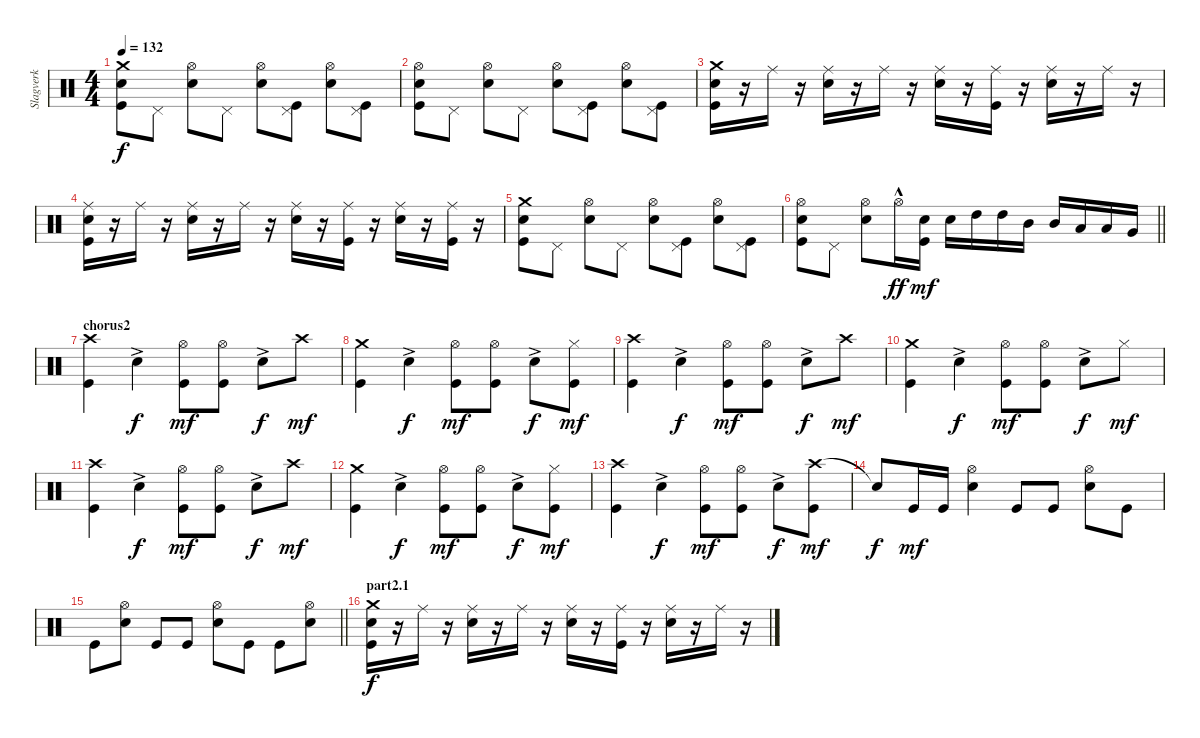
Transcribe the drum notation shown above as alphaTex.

\track ("Slagverk" "Slagverk") {instrument percussion}
\staff
\articulation defaults
\ts (4 4)
\tempo 132
\clef neutral
\ks c
("Crash medium (hit)" "Snare (hit) 2" "Kick (hit)").8{dy f} "Pedal Hi-Hat (hit)".8 ("Hi-Hat (open)" "Snare (hit) 2").8 "Pedal Hi-Hat (hit)".8 ("Hi-Hat (open)" "Snare (hit) 2").8 ("Pedal Hi-Hat (hit)" "Kick (hit)").8 ("Hi-Hat (open)" "Snare (hit) 2").8 ("Pedal Hi-Hat (hit)" "Kick (hit)").8 |
("Hi-Hat (open)" "Snare (hit) 2" "Kick (hit)").8 "Pedal Hi-Hat (hit)".8 ("Hi-Hat (open)" "Snare (hit) 2").8 "Pedal Hi-Hat (hit)".8 ("Hi-Hat (open)" "Snare (hit) 2").8 ("Pedal Hi-Hat (hit)" "Kick (hit)").8 ("Hi-Hat (open)" "Snare (hit) 2").8 ("Pedal Hi-Hat (hit)" "Kick (hit)").8 |
("Crash medium (hit)" "Snare (hit) 2" "Kick (hit)").16 r.16 "Ride (middle)".16 r.16 ("Ride (middle)" "Snare (hit) 2").16 r.16 "Ride (middle)".16 r.16 ("Ride (middle)" "Snare (hit) 2").16 r.16 ("Ride (middle)" "Kick (hit)").16 r.16 ("Ride (middle)" "Snare (hit) 2").16 r.16 "Ride (middle)".16 r.16 |
("Ride (middle)" "Snare (hit) 2" "Kick (hit)").16 r.16 "Ride (middle)".16 r.16 ("Ride (middle)" "Snare (hit) 2").16 r.16 "Ride (middle)".16 r.16 ("Ride (middle)" "Snare (hit) 2").16 r.16 ("Ride (middle)" "Kick (hit)").16 r.16 ("Ride (middle)" "Snare (hit) 2").16 r.16 ("Ride (middle)" "Kick (hit)").16 r.16 |
("Crash medium (hit)" "Snare (hit) 2" "Kick (hit)").8 "Pedal Hi-Hat (hit)".8 ("Hi-Hat (open)" "Snare (hit) 2").8 "Pedal Hi-Hat (hit)".8 ("Hi-Hat (open)" "Snare (hit) 2").8 ("Pedal Hi-Hat (hit)" "Kick (hit)").8 ("Hi-Hat (open)" "Snare (hit) 2").8 ("Pedal Hi-Hat (hit)" "Kick (hit)").8 |
\barLineRight lightlight
("Hi-Hat (open)" "Snare (hit) 2" "Kick (hit)").8 "Pedal Hi-Hat (hit)".8 ("Hi-Hat (open)" "Snare (hit) 2").8 "Hi-Hat (open)"{hac}.16{dy ff} ("Snare (hit) 2" "Kick (hit)").16{dy mf} "Snare (hit) 2".16 "High Tom (hit)".16 "High Tom (hit)".16 "Mid Tom (hit)".16 "Mid Tom (hit)".16 "Low Tom (hit)".16 "Low Tom (hit)".16 "Very Low Tom (hit)".16 |
\section ("" "chorus2")
("Crash high (hit)" "Kick (hit)").4 "Snare (hit) 2"{ac}.4{dy f} ("Hi-Hat (open)" "Kick (hit)").8{dy mf} ("Hi-Hat (open)" "Kick (hit)").8 "Snare (hit) 2"{ac}.8{dy f} "Crash high (hit)".8{dy mf} |
("Crash medium (hit)" "Kick (hit)").4 "Snare (hit) 2"{ac}.4{dy f} ("Hi-Hat (open)" "Kick (hit)").8{dy mf} ("Hi-Hat (open)" "Kick (hit)").8 "Snare (hit) 2"{ac}.8{dy f} ("Hi-Hat (closed)" "Kick (hit)").8{dy mf} |
("Crash high (hit)" "Kick (hit)").4 "Snare (hit) 2"{ac}.4{dy f} ("Hi-Hat (open)" "Kick (hit)").8{dy mf} ("Hi-Hat (open)" "Kick (hit)").8 "Snare (hit) 2"{ac}.8{dy f} "Crash high (hit)".8{dy mf} |
("Crash medium (hit)" "Kick (hit)").4 "Snare (hit) 2"{ac}.4{dy f} ("Hi-Hat (open)" "Kick (hit)").8{dy mf} ("Hi-Hat (open)" "Kick (hit)").8 "Snare (hit) 2"{ac}.8{dy f} "Hi-Hat (closed)".8{dy mf} |
("Crash high (hit)" "Kick (hit)").4 "Snare (hit) 2"{ac}.4{dy f} ("Hi-Hat (open)" "Kick (hit)").8{dy mf} ("Hi-Hat (open)" "Kick (hit)").8 "Snare (hit) 2"{ac}.8{dy f} "Crash high (hit)".8{dy mf} |
("Crash medium (hit)" "Kick (hit)").4 "Snare (hit) 2"{ac}.4{dy f} ("Hi-Hat (open)" "Kick (hit)").8{dy mf} ("Hi-Hat (open)" "Kick (hit)").8 "Snare (hit) 2"{ac}.8{dy f} ("Hi-Hat (closed)" "Kick (hit)").8{dy mf} |
("Crash high (hit)" "Kick (hit)").4 "Snare (hit) 2"{ac}.4{dy f} ("Hi-Hat (open)" "Kick (hit)").8{dy mf} ("Hi-Hat (open)" "Kick (hit)").8 "Snare (hit) 2"{ac}.8{dy f} ("Crash high (hit)" "Kick (hit)").8{dy mf} |
"Snare (hit)"{t}.8{dy f} "Kick (hit)".16{dy mf} "Kick (hit)".16 ("Hi-Hat (open)" "Snare (hit) 2").4 "Kick (hit)".8 "Kick (hit)".8 ("Hi-Hat (open)" "Snare (hit) 2").8 "Kick (hit)".8 |
\barLineRight lightlight "Kick (hit)".8
("Hi-Hat (open)" "Snare (hit) 2").8 "Kick (hit)".8 "Kick (hit)".8 ("Hi-Hat (open)" "Snare (hit) 2").8 "Kick (hit)".8 "Kick (hit)".8 ("Hi-Hat (open)" "Snare (hit) 2").8 |
\section ("" "part2.1")
("Crash medium (hit)" "Snare (hit) 2" "Kick (hit)").16{dy f} r.16 "Ride (middle)".16 r.16 ("Ride (middle)" "Snare (hit) 2").16 r.16 "Ride (middle)".16 r.16 ("Ride (middle)" "Snare (hit) 2").16 r.16 ("Ride (middle)" "Kick (hit)").16 r.16 ("Ride (middle)" "Snare (hit) 2").16 r.16 "Ride (middle)".16 r.16
